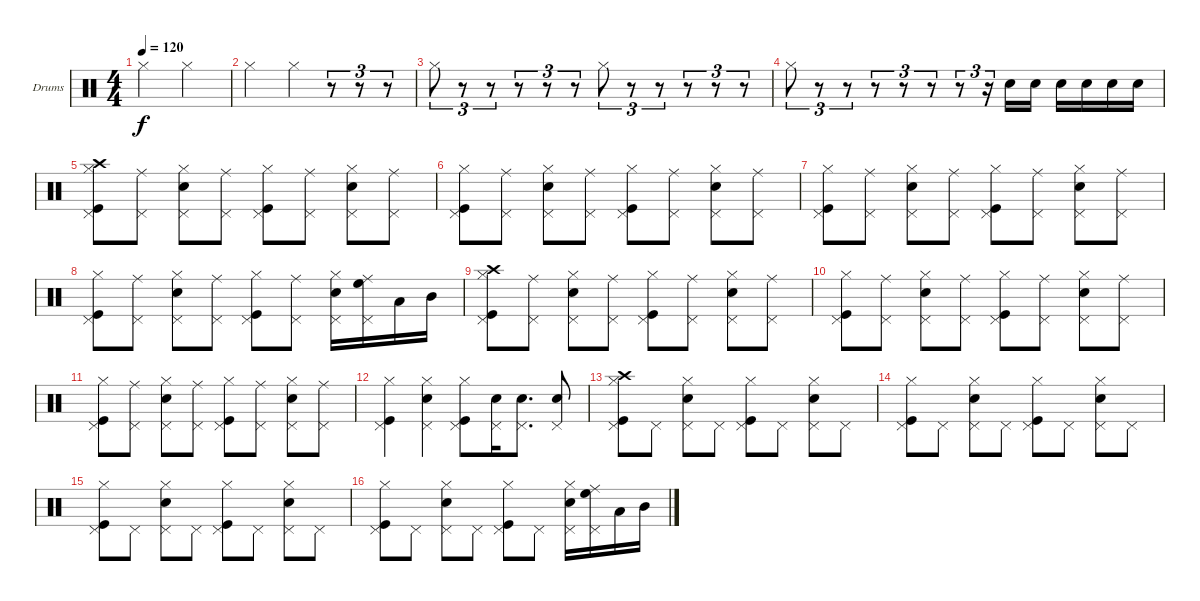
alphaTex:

\defaultSystemsLayout 4
\bracketExtendMode groupsimilarinstruments
\firstSystemTrackNameOrientation horizontal
\otherSystemsTrackNameOrientation horizontal
\track ("Drumkit" "Drums") {instrument percussion}
\staff {score}
\articulation defaults
\ts (4 4)
\tempo 120
\clef neutral
\scale
0.474178
\ks c "Hi-Hat (closed)".2{dy f} "Hi-Hat (closed)".2
|
\scale
0.262911 "Hi-Hat (closed)".2 "Hi-Hat (closed)".4 r.8{tu (3 2)} r.8{tu (3 2)} r.8{tu (3 2)} |
\scale
0.262911 "Hi-Hat (closed)".8{tu (3 2)} r.8{tu (3 2)} r.8{tu (3 2)} r.8{tu (3 2)} r.8{tu (3 2)} r.8{tu (3 2)} "Hi-Hat (closed)".8{tu (3 2)} r.8{tu (3 2)} r.8{tu (3 2)} r.8{tu (3 2)} r.8{tu (3 2)} r.8{tu (3 2)} |
\scale
0.333333 "Hi-Hat (closed)".8{tu (3 2)} r.8{tu (3 2)} r.8{tu (3 2)} r.8{tu (3 2)} r.8{tu (3 2)} r.8{tu (3 2)} r.8{tu (3 2)} r.16{tu (3 2)} "Snare (hit) 2".16 "Snare (hit) 2".16 "Snare (hit) 2".16 "Snare (hit) 2".16 "Snare (hit) 2".16 "Snare (hit) 2".16 |
\scale
0.333333 ("Hi-Hat (closed)" "Crash high (hit)" "Kick (hit)" "Pedal Hi-Hat (hit)").8 ("Pedal Hi-Hat (hit)" "Ride (middle)").8 ("Snare (hit) 2" "Hi-Hat (closed)" "Pedal Hi-Hat (hit)").8 ("Pedal Hi-Hat (hit)" "Ride (middle)").8 ("Kick (hit)" "Hi-Hat (closed)" "Pedal Hi-Hat (hit)").8 ("Pedal Hi-Hat (hit)" "Ride (middle)").8 ("Snare (hit) 2" "Hi-Hat (closed)" "Pedal Hi-Hat (hit)").8 ("Pedal Hi-Hat (hit)" "Ride (middle)").8 |
\scale
0.333333 ("Hi-Hat (closed)" "Kick (hit)" "Pedal Hi-Hat (hit)").8 ("Pedal Hi-Hat (hit)" "Ride (middle)").8 ("Snare (hit) 2" "Hi-Hat (closed)" "Pedal Hi-Hat (hit)").8 ("Pedal Hi-Hat (hit)" "Ride (middle)").8 ("Kick (hit)" "Hi-Hat (closed)" "Pedal Hi-Hat (hit)").8 ("Pedal Hi-Hat (hit)" "Ride (middle)").8 ("Snare (hit) 2" "Hi-Hat (closed)" "Pedal Hi-Hat (hit)").8 ("Pedal Hi-Hat (hit)" "Ride (middle)").8 |
\scale
0.333333 ("Hi-Hat (closed)" "Kick (hit)" "Pedal Hi-Hat (hit)").8 ("Pedal Hi-Hat (hit)" "Ride (middle)").8 ("Snare (hit) 2" "Hi-Hat (closed)" "Pedal Hi-Hat (hit)").8 ("Pedal Hi-Hat (hit)" "Ride (middle)").8 ("Kick (hit)" "Hi-Hat (closed)" "Pedal Hi-Hat (hit)").8 ("Pedal Hi-Hat (hit)" "Ride (middle)").8 ("Snare (hit) 2" "Hi-Hat (closed)" "Pedal Hi-Hat (hit)").8 ("Pedal Hi-Hat (hit)" "Ride (middle)").8 |
\scale
0.333333 ("Hi-Hat (closed)" "Kick (hit)" "Pedal Hi-Hat (hit)").8 ("Pedal Hi-Hat (hit)" "Ride (middle)").8 ("Snare (hit) 2" "Hi-Hat (closed)" "Pedal Hi-Hat (hit)").8 ("Pedal Hi-Hat (hit)" "Ride (middle)").8 ("Kick (hit)" "Hi-Hat (closed)" "Pedal Hi-Hat (hit)").8 ("Pedal Hi-Hat (hit)" "Ride (middle)").8 ("Snare (hit) 2" "Hi-Hat (closed)" "Pedal Hi-Hat (hit)").16 ("Pedal Hi-Hat (hit)" "Ride (middle)" "High Floor Tom (hit)").16 "Low Tom (hit)".16 "Mid Tom (hit)".16 |
\scale
0.333333 ("Hi-Hat (closed)" "Crash high (hit)" "Kick (hit)" "Pedal Hi-Hat (hit)").8 ("Pedal Hi-Hat (hit)" "Ride (middle)").8 ("Snare (hit) 2" "Hi-Hat (closed)" "Pedal Hi-Hat (hit)").8 ("Pedal Hi-Hat (hit)" "Ride (middle)").8 ("Kick (hit)" "Hi-Hat (closed)" "Pedal Hi-Hat (hit)").8 ("Pedal Hi-Hat (hit)" "Ride (middle)").8 ("Snare (hit) 2" "Hi-Hat (closed)" "Pedal Hi-Hat (hit)").8 ("Pedal Hi-Hat (hit)" "Ride (middle)").8 |
\scale
0.333333 ("Hi-Hat (closed)" "Kick (hit)" "Pedal Hi-Hat (hit)").8 ("Pedal Hi-Hat (hit)" "Ride (middle)").8 ("Snare (hit) 2" "Hi-Hat (closed)" "Pedal Hi-Hat (hit)").8 ("Pedal Hi-Hat (hit)" "Ride (middle)").8 ("Kick (hit)" "Hi-Hat (closed)" "Pedal Hi-Hat (hit)").8 ("Pedal Hi-Hat (hit)" "Ride (middle)").8 ("Snare (hit) 2" "Hi-Hat (closed)" "Pedal Hi-Hat (hit)").8 ("Pedal Hi-Hat (hit)" "Ride (middle)").8 |
\scale
0.333333 ("Hi-Hat (closed)" "Kick (hit)" "Pedal Hi-Hat (hit)").8 ("Pedal Hi-Hat (hit)" "Ride (middle)").8 ("Snare (hit) 2" "Hi-Hat (closed)" "Pedal Hi-Hat (hit)").8 ("Pedal Hi-Hat (hit)" "Ride (middle)").8 ("Kick (hit)" "Hi-Hat (closed)" "Pedal Hi-Hat (hit)").8 ("Pedal Hi-Hat (hit)" "Ride (middle)").8 ("Snare (hit) 2" "Hi-Hat (closed)" "Pedal Hi-Hat (hit)").8 ("Pedal Hi-Hat (hit)" "Ride (middle)").8 |
\scale
0.333333 ("Hi-Hat (closed)" "Kick (hit)" "Pedal Hi-Hat (hit)").4 ("Hi-Hat (closed)" "Snare (hit) 2" "Pedal Hi-Hat (hit)").4 ("Hi-Hat (closed)" "Kick (hit)" "Pedal Hi-Hat (hit)").8 ("Pedal Hi-Hat (hit)" "Snare (hit) 2").16 ("Pedal Hi-Hat (hit)" "Snare (hit) 2").8{d} ("Pedal Hi-Hat (hit)" "Snare (hit) 2").8 |
\scale
0.333333 ("Hi-Hat (closed)" "Crash high (hit)" "Kick (hit)" "Pedal Hi-Hat (hit)").8 "Pedal Hi-Hat (hit)".8 ("Snare (hit) 2" "Hi-Hat (closed)" "Pedal Hi-Hat (hit)").8 "Pedal Hi-Hat (hit)".8 ("Kick (hit)" "Hi-Hat (closed)" "Pedal Hi-Hat (hit)").8 "Pedal Hi-Hat (hit)".8 ("Snare (hit) 2" "Hi-Hat (closed)" "Pedal Hi-Hat (hit)").8 "Pedal Hi-Hat (hit)".8 |
\scale
0.333333 ("Hi-Hat (closed)" "Kick (hit)" "Pedal Hi-Hat (hit)").8 "Pedal Hi-Hat (hit)".8 ("Snare (hit) 2" "Hi-Hat (closed)" "Pedal Hi-Hat (hit)").8 "Pedal Hi-Hat (hit)".8 ("Kick (hit)" "Hi-Hat (closed)" "Pedal Hi-Hat (hit)").8 "Pedal Hi-Hat (hit)".8 ("Snare (hit) 2" "Hi-Hat (closed)" "Pedal Hi-Hat (hit)").8 "Pedal Hi-Hat (hit)".8 |
\scale
0.333333 ("Hi-Hat (closed)" "Kick (hit)" "Pedal Hi-Hat (hit)").8 "Pedal Hi-Hat (hit)".8 ("Snare (hit) 2" "Hi-Hat (closed)" "Pedal Hi-Hat (hit)").8 "Pedal Hi-Hat (hit)".8 ("Kick (hit)" "Hi-Hat (closed)" "Pedal Hi-Hat (hit)").8 "Pedal Hi-Hat (hit)".8 ("Snare (hit) 2" "Hi-Hat (closed)" "Pedal Hi-Hat (hit)").8 "Pedal Hi-Hat (hit)".8 |
("Hi-Hat (closed)" "Kick (hit)" "Pedal Hi-Hat (hit)").8 "Pedal Hi-Hat (hit)".8 ("Snare (hit) 2" "Hi-Hat (closed)" "Pedal Hi-Hat (hit)").8 "Pedal Hi-Hat (hit)".8 ("Kick (hit)" "Hi-Hat (closed)" "Pedal Hi-Hat (hit)").8 "Pedal Hi-Hat (hit)".8 ("Snare (hit) 2" "Hi-Hat (closed)" "Pedal Hi-Hat (hit)").16 ("Pedal Hi-Hat (hit)" "Ride (middle)" "High Floor Tom (hit)").16 "Low Tom (hit)".16 "Mid Tom (hit)".16
